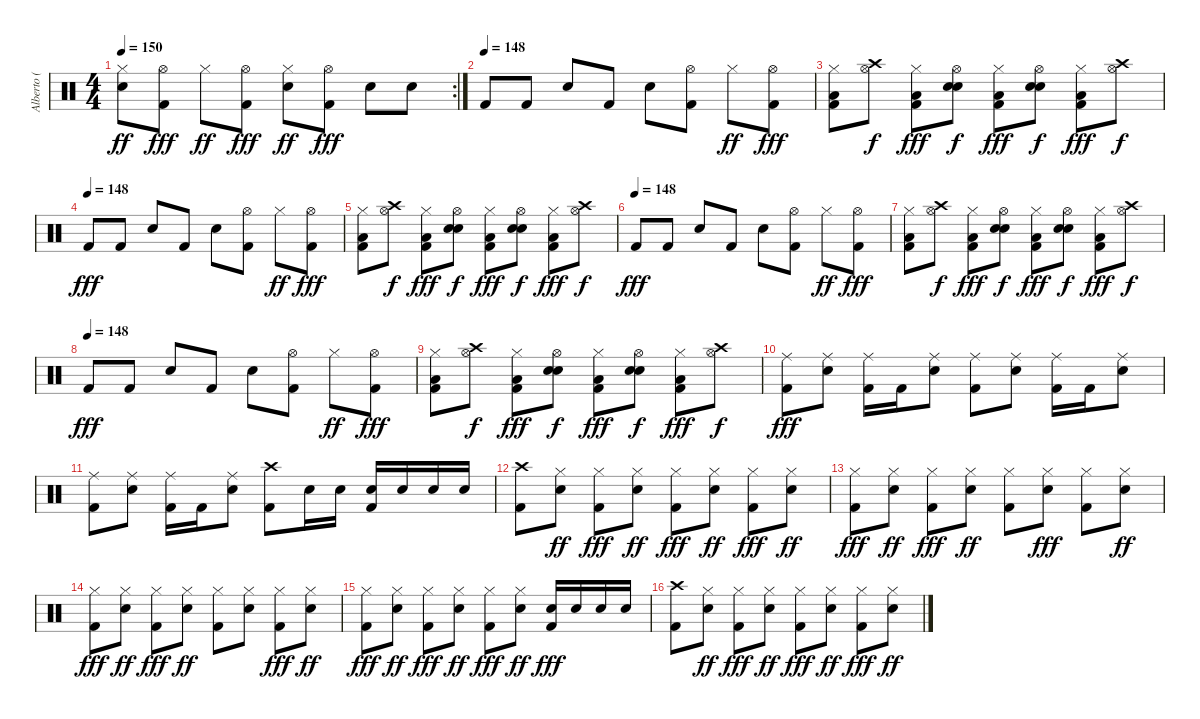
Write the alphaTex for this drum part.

\track ("Alberto ( Tohi )" "Alberto ( ") {instrument percussion}
\staff {score}
\articulation defaults
\rc 2
\ts (4 4)
\tempo 150
\clef neutral
\ks c
("Snare (hit) 2" "Hi-Hat (closed)").8{dy ff} ("Hi-Hat (open)" "Kick (hit) 2").8{dy fff} "Hi-Hat (closed)".8{dy ff} ("Hi-Hat (open)" "Kick (hit) 2").8{dy fff} ("Snare (hit) 2" "Hi-Hat (closed)").8{dy ff} ("Hi-Hat (open)" "Kick (hit) 2").8{dy fff} "Snare (hit) 2".8 "Snare (hit) 2".8 |
\tempo 141
\tempo (148)
"Kick (hit) 2".8 "Kick (hit) 2".8 "Snare (hit) 2".8 "Kick (hit) 2".8 "Snare (hit) 2".8 ("Hi-Hat (open)" "Kick (hit) 2").8 "Hi-Hat (closed)".8{dy ff} ("Hi-Hat (open)" "Kick (hit) 2").8{dy fff} |
("Hi-Hat (closed)" "Kick (hit) 2" "Low Tom (hit)").8 ("Hi-Hat (open)" "Crash high (hit)").8{dy f} ("Hi-Hat (closed)" "Kick (hit) 2" "Low Tom (hit)").8{dy fff} ("Hi-Hat (open)" "Snare (hit) 2" "Snare (hit) 2").8{dy f} ("Hi-Hat (closed)" "Kick (hit) 2" "Low Tom (hit)").8{dy fff} ("Hi-Hat (open)" "Snare (hit) 2" "Snare (hit) 2").8{dy f} ("Hi-Hat (closed)" "Kick (hit) 2" "Low Tom (hit)").8{dy fff} ("Hi-Hat (open)" "Crash high (hit)").8{dy f} |
\tempo (148)
"Kick (hit) 2".8{dy fff} "Kick (hit) 2".8 "Snare (hit) 2".8 "Kick (hit) 2".8 "Snare (hit) 2".8 ("Hi-Hat (open)" "Kick (hit) 2").8 "Hi-Hat (closed)".8{dy ff} ("Hi-Hat (open)" "Kick (hit) 2").8{dy fff} |
("Hi-Hat (closed)" "Kick (hit) 2" "Low Tom (hit)").8 ("Hi-Hat (open)" "Crash high (hit)").8{dy f} ("Hi-Hat (closed)" "Kick (hit) 2" "Low Tom (hit)").8{dy fff} ("Hi-Hat (open)" "Snare (hit) 2" "Snare (hit) 2").8{dy f} ("Hi-Hat (closed)" "Kick (hit) 2" "Low Tom (hit)").8{dy fff} ("Hi-Hat (open)" "Snare (hit) 2" "Snare (hit) 2").8{dy f} ("Hi-Hat (closed)" "Kick (hit) 2" "Low Tom (hit)").8{dy fff} ("Hi-Hat (open)" "Crash high (hit)").8{dy f} |
\tempo (148)
"Kick (hit) 2".8{dy fff} "Kick (hit) 2".8 "Snare (hit) 2".8 "Kick (hit) 2".8 "Snare (hit) 2".8 ("Hi-Hat (open)" "Kick (hit) 2").8 "Hi-Hat (closed)".8{dy ff} ("Hi-Hat (open)" "Kick (hit) 2").8{dy fff} |
("Hi-Hat (closed)" "Kick (hit) 2" "Low Tom (hit)").8 ("Hi-Hat (open)" "Crash high (hit)").8{dy f} ("Hi-Hat (closed)" "Kick (hit) 2" "Low Tom (hit)").8{dy fff} ("Hi-Hat (open)" "Snare (hit) 2" "Snare (hit) 2").8{dy f} ("Hi-Hat (closed)" "Kick (hit) 2" "Low Tom (hit)").8{dy fff} ("Hi-Hat (open)" "Snare (hit) 2" "Snare (hit) 2").8{dy f} ("Hi-Hat (closed)" "Kick (hit) 2" "Low Tom (hit)").8{dy fff} ("Hi-Hat (open)" "Crash high (hit)").8{dy f} |
\tempo (148)
"Kick (hit) 2".8{dy fff} "Kick (hit) 2".8 "Snare (hit) 2".8 "Kick (hit) 2".8 "Snare (hit) 2".8 ("Hi-Hat (open)" "Kick (hit) 2").8 "Hi-Hat (closed)".8{dy ff} ("Hi-Hat (open)" "Kick (hit) 2").8{dy fff} |
("Hi-Hat (closed)" "Kick (hit) 2" "Low Tom (hit)").8 ("Hi-Hat (open)" "Crash high (hit)").8{dy f} ("Hi-Hat (closed)" "Kick (hit) 2" "Low Tom (hit)").8{dy fff} ("Hi-Hat (open)" "Snare (hit) 2" "Snare (hit) 2").8{dy f} ("Hi-Hat (closed)" "Kick (hit) 2" "Low Tom (hit)").8{dy fff} ("Hi-Hat (open)" "Snare (hit) 2" "Snare (hit) 2").8{dy f} ("Hi-Hat (closed)" "Kick (hit) 2" "Low Tom (hit)").8{dy fff} ("Hi-Hat (open)" "Crash high (hit)").8{dy f} |
("Ride (middle)" "Kick (hit) 2").8{dy fff} ("Snare (hit) 2" "Ride (middle)").8 ("Ride (middle)" "Kick (hit) 2").16 "Kick (hit) 2".16 ("Snare (hit) 2" "Ride (middle)").8 ("Ride (middle)" "Kick (hit) 2").8 ("Snare (hit) 2" "Ride (middle)").8 ("Ride (middle)" "Kick (hit) 2").16 "Kick (hit) 2".16 ("Snare (hit) 2" "Ride (middle)").8 |
("Ride (middle)" "Kick (hit) 2").8 ("Snare (hit) 2" "Ride (middle)").8 ("Ride (middle)" "Kick (hit) 2").16 "Kick (hit) 2".16 ("Snare (hit) 2" "Ride (middle)").8 ("Kick (hit) 2" "Crash high (hit)").8 "Snare (hit) 2".16 "Snare (hit) 2".16 ("Snare (hit) 2" "Kick (hit) 2").16 "Snare (hit) 2".16 "Snare (hit) 2".16 "Snare (hit) 2".16 |
("Crash high (hit)" "Kick (hit) 2").8 ("Snare (hit) 2" "Hi-Hat (closed)").8{dy ff} ("Hi-Hat (closed)" "Kick (hit) 2").8{dy fff} ("Snare (hit) 2" "Hi-Hat (closed)").8{dy ff} ("Hi-Hat (closed)" "Kick (hit) 2").8{dy fff} ("Snare (hit) 2" "Hi-Hat (closed)").8{dy ff} ("Hi-Hat (closed)" "Kick (hit) 2").8{dy fff} ("Snare (hit) 2" "Hi-Hat (closed)").8{dy ff} |
("Hi-Hat (closed)" "Kick (hit) 2").8{dy fff} ("Snare (hit) 2" "Hi-Hat (closed)").8{dy ff} ("Hi-Hat (closed)" "Kick (hit) 2").8{dy fff} ("Snare (hit) 2" "Hi-Hat (closed)").8{dy ff} ("Kick (hit) 2" "Hi-Hat (closed)").8 ("Hi-Hat (closed)" "Snare (hit) 2").8{dy fff} ("Hi-Hat (closed)" "Kick (hit) 2").8 ("Snare (hit) 2" "Hi-Hat (closed)").8{dy ff} |
("Hi-Hat (closed)" "Kick (hit) 2").8{dy fff} ("Snare (hit) 2" "Hi-Hat (closed)").8{dy ff} ("Hi-Hat (closed)" "Kick (hit) 2").8{dy fff} ("Snare (hit) 2" "Hi-Hat (closed)").8{dy ff} ("Kick (hit) 2" "Hi-Hat (closed)").8 ("Snare (hit) 2" "Hi-Hat (closed)").8 ("Hi-Hat (closed)" "Kick (hit) 2").8{dy fff} ("Snare (hit) 2" "Hi-Hat (closed)").8{dy ff} |
("Hi-Hat (closed)" "Kick (hit) 2").8{dy fff} ("Snare (hit) 2" "Hi-Hat (closed)").8{dy ff} ("Hi-Hat (closed)" "Kick (hit) 2").8{dy fff} ("Snare (hit) 2" "Hi-Hat (closed)").8{dy ff} ("Hi-Hat (closed)" "Kick (hit) 2").8{dy fff} ("Snare (hit) 2" "Hi-Hat (closed)").8{dy ff} ("Snare (hit) 2" "Kick (hit) 2").16{dy fff} "Snare (hit) 2".16 "Snare (hit) 2".16 "Snare (hit) 2".16 |
("Crash high (hit)" "Kick (hit) 2").8 ("Snare (hit) 2" "Hi-Hat (closed)").8{dy ff} ("Hi-Hat (closed)" "Kick (hit) 2").8{dy fff} ("Snare (hit) 2" "Hi-Hat (closed)").8{dy ff} ("Hi-Hat (closed)" "Kick (hit) 2").8{dy fff} ("Snare (hit) 2" "Hi-Hat (closed)").8{dy ff} ("Hi-Hat (closed)" "Kick (hit) 2").8{dy fff} ("Snare (hit) 2" "Hi-Hat (closed)").8{dy ff}
